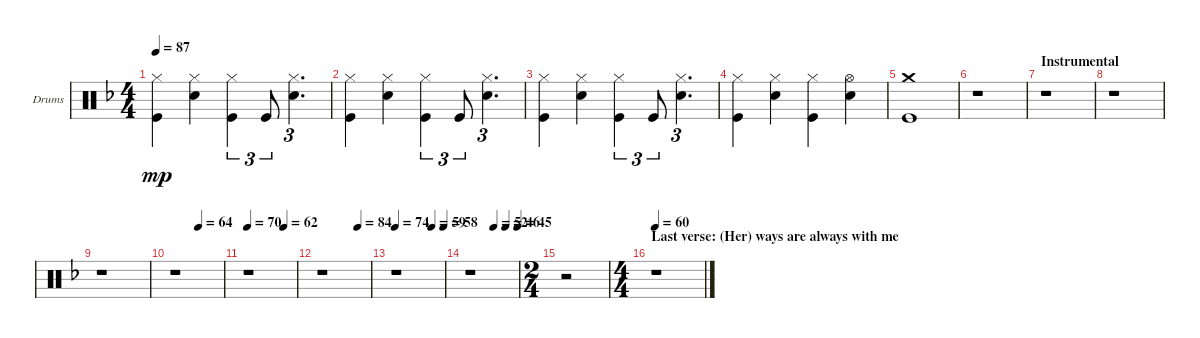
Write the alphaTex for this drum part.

\bracketExtendMode groupsimilarinstruments
\firstSystemTrackNameOrientation horizontal
\otherSystemsTrackNameOrientation horizontal
\track ("Drumkit" "Drums") {instrument percussion}
\staff {score}
\articulation defaults
\ts (4 4)
\tempo 87
\clef neutral
\ks dminor
("Hi-Hat (closed)" "Kick (hit)").4{dy mp} ("Hi-Hat (closed)" "Snare (hit) 2").4 ("Hi-Hat (closed)" "Kick (hit)").4{tu (3 2)} "Kick (hit)".8{tu (3 2)} ("Hi-Hat (closed)" "Snare (hit) 2").4{d tu (3 2)} |
("Hi-Hat (closed)" "Kick (hit)").4 ("Hi-Hat (closed)" "Snare (hit) 2").4 ("Hi-Hat (closed)" "Kick (hit)").4{tu (3 2)} "Kick (hit)".8{tu (3 2)} ("Hi-Hat (closed)" "Snare (hit) 2").4{d tu (3 2)} |
("Hi-Hat (closed)" "Kick (hit)").4 ("Hi-Hat (closed)" "Snare (hit) 2").4 ("Hi-Hat (closed)" "Kick (hit)").4{tu (3 2)} "Kick (hit)".8{tu (3 2)} ("Hi-Hat (closed)" "Snare (hit) 2").4{d tu (3 2)} |
("Hi-Hat (closed)" "Kick (hit)").4 ("Hi-Hat (closed)" "Snare (hit) 2").4 ("Hi-Hat (closed)" "Kick (hit)").4 ("Hi-Hat (open)" "Snare (hit) 2").4 |
("Kick (hit)" "Crash medium (hit)").1 |
r.1 |
\section ("" "Instrumental")
r.1 |
r.1 |
r.1 |
\tempo (64 0.5)
r.1 |
\tempo 70
\tempo (62 0.75)
r.1 |
\tempo (84 0.75)
r.1 |
\tempo 74
\tempo (59 0.75)
\tempo (58 1)
r.1 |
\tempo (52 0.50625)
\tempo (46 0.75)
\tempo (45 1)
r.1 |
\ts (2 4)
r.2 |
\ts (4 4)
\section ("" "Last verse: (Her) ways are always with me")
\tempo 60
r.1
